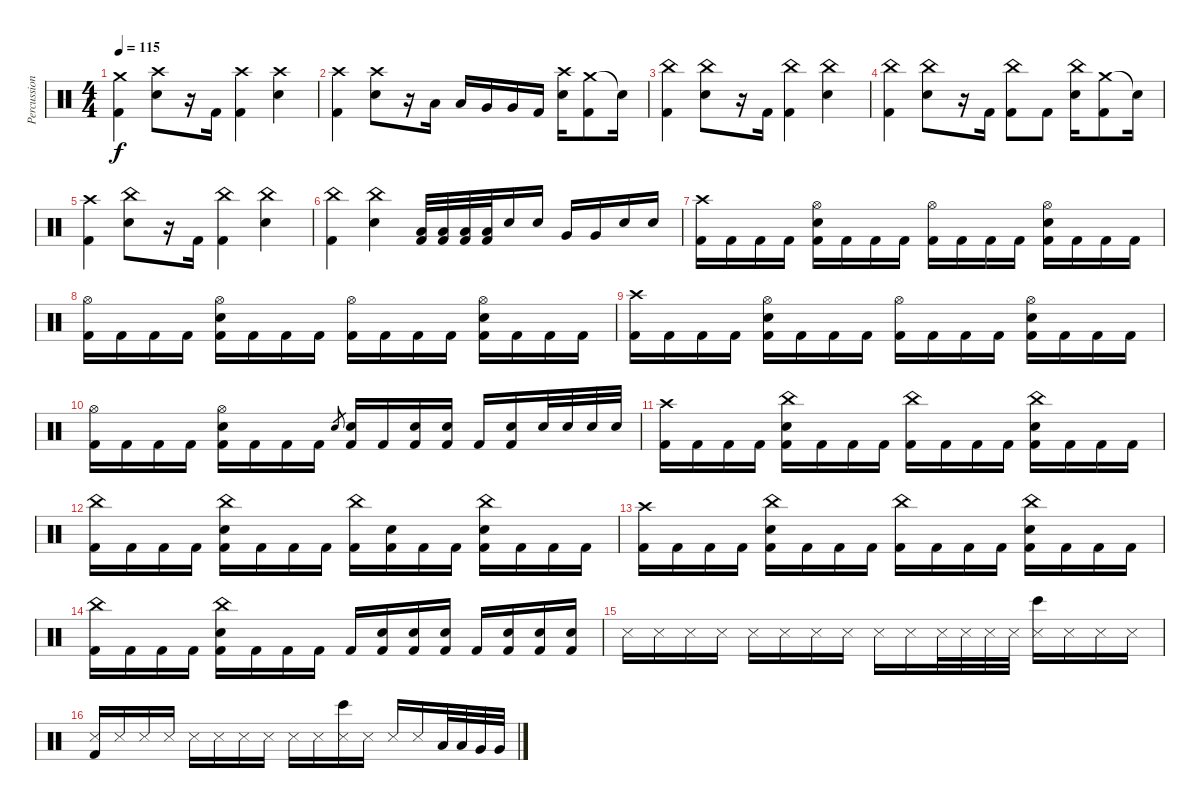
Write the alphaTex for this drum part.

\track ("Percussions" "Percussion") {instrument percussion}
\staff {score}
\articulation defaults
\ts (4 4)
\tempo 115
\clef neutral
\ks c
("Crash medium (hit)" "Kick (hit) 2").4{dy f} ("Crash high (hit)" "Electric Snare (hit)").8 r.16 "Kick (hit) 2".16 ("Crash high (hit)" "Kick (hit) 2").4 ("Crash high (hit)" "Electric Snare (hit)").4 |
("Crash high (hit)" "Kick (hit) 2").4 ("Crash high (hit)" "Electric Snare (hit)").8 r.16 "Low Tom (hit)".16 "Low Tom (hit)".16 "Very Low Tom (hit)".16 "Very Low Tom (hit)".16 "Kick (hit) 2".16 ("Crash high (hit)" "Electric Snare (hit)").16 ("Crash medium (hit)" "Kick (hit) 2").8 "Snare (hit)"{t}.16 |
("China (hit)" "Kick (hit) 2").4 ("China (hit)" "Electric Snare (hit)").8 r.16 "Kick (hit) 2".16 ("China (hit)" "Kick (hit) 2").4 ("China (hit)" "Electric Snare (hit)").4 |
("China (hit)" "Kick (hit) 2").4 ("China (hit)" "Electric Snare (hit)").8 r.16 "Kick (hit) 2".16 ("China (hit)" "Kick (hit) 2").8 "Kick (hit) 2".8 ("China (hit)" "Electric Snare (hit)").16 ("Crash medium (hit)" "Kick (hit) 2").8 "Snare (hit)"{t}.16 |
("Crash high (hit)" "Kick (hit) 2").4 ("China (hit)" "Electric Snare (hit)").8 r.16 "Kick (hit) 2".16 ("China (hit)" "Kick (hit) 2").4 ("China (hit)" "Electric Snare (hit)").4 |
("China (hit)" "Kick (hit) 2").4 ("China (hit)" "Electric Snare (hit)").4 ("Low Tom (hit)" "Kick (hit) 2").32 ("Low Tom (hit)" "Kick (hit) 2").32 ("Low Tom (hit)" "Kick (hit) 2").32 ("Low Tom (hit)" "Kick (hit) 2").32 "Electric Snare (hit)".16 "Electric Snare (hit)".16 "Very Low Tom (hit)".16 "Very Low Tom (hit)".16 "Electric Snare (hit)".16 "Electric Snare (hit)".16 |
("Crash high (hit)" "Kick (hit) 2").16 "Kick (hit) 2".16 "Kick (hit) 2".16 "Kick (hit) 2".16 ("Hi-Hat (open)" "Electric Snare (hit)" "Kick (hit) 2").16 "Kick (hit) 2".16 "Kick (hit) 2".16 "Kick (hit) 2".16 ("Hi-Hat (open)" "Kick (hit) 2").16 "Kick (hit) 2".16 "Kick (hit) 2".16 "Kick (hit) 2".16 ("Hi-Hat (open)" "Electric Snare (hit)" "Kick (hit) 2").16 "Kick (hit) 2".16 "Kick (hit) 2".16 "Kick (hit) 2".16 |
("Hi-Hat (open)" "Kick (hit) 2").16 "Kick (hit) 2".16 "Kick (hit) 2".16 "Kick (hit) 2".16 ("Hi-Hat (open)" "Electric Snare (hit)" "Kick (hit) 2").16 "Kick (hit) 2".16 "Kick (hit) 2".16 "Kick (hit) 2".16 ("Hi-Hat (open)" "Kick (hit) 2").16 "Kick (hit) 2".16 "Kick (hit) 2".16 "Kick (hit) 2".16 ("Hi-Hat (open)" "Electric Snare (hit)" "Kick (hit) 2").16 "Kick (hit) 2".16 "Kick (hit) 2".16 "Kick (hit) 2".16 |
("Crash high (hit)" "Kick (hit) 2").16 "Kick (hit) 2".16 "Kick (hit) 2".16 "Kick (hit) 2".16 ("Hi-Hat (open)" "Electric Snare (hit)" "Kick (hit) 2").16 "Kick (hit) 2".16 "Kick (hit) 2".16 "Kick (hit) 2".16 ("Hi-Hat (open)" "Kick (hit) 2").16 "Kick (hit) 2".16 "Kick (hit) 2".16 "Kick (hit) 2".16 ("Hi-Hat (open)" "Electric Snare (hit)" "Kick (hit) 2").16 "Kick (hit) 2".16 "Kick (hit) 2".16 "Kick (hit) 2".16 |
("Hi-Hat (open)" "Kick (hit) 2").16 "Kick (hit) 2".16 "Kick (hit) 2".16 "Kick (hit) 2".16 ("Hi-Hat (open)" "Electric Snare (hit)" "Kick (hit) 2").16 "Kick (hit) 2".16 "Kick (hit) 2".16 "Kick (hit) 2".16 "Electric Snare (hit)".8{gr} ("Electric Snare (hit)" "Kick (hit) 2").16 "Kick (hit) 2".16 ("Electric Snare (hit)" "Kick (hit) 2").16 ("Electric Snare (hit)" "Kick (hit) 2").16 "Kick (hit) 2".16 ("Electric Snare (hit)" "Kick (hit) 2").16 "Electric Snare (hit)".32 "Electric Snare (hit)".32 "Electric Snare (hit)".32 "Electric Snare (hit)".32 |
("Crash high (hit)" "Kick (hit) 2").16 "Kick (hit) 2".16 "Kick (hit) 2".16 "Kick (hit) 2".16 ("China (hit)" "Electric Snare (hit)" "Kick (hit) 2").16 "Kick (hit) 2".16 "Kick (hit) 2".16 "Kick (hit) 2".16 ("China (hit)" "Kick (hit) 2").16 "Kick (hit) 2".16 "Kick (hit) 2".16 "Kick (hit) 2".16 ("China (hit)" "Electric Snare (hit)" "Kick (hit) 2").16 "Kick (hit) 2".16 "Kick (hit) 2".16 "Kick (hit) 2".16 |
("China (hit)" "Kick (hit) 2").16 "Kick (hit) 2".16 "Kick (hit) 2".16 "Kick (hit) 2".16 ("China (hit)" "Electric Snare (hit)" "Kick (hit) 2").16 "Kick (hit) 2".16 "Kick (hit) 2".16 "Kick (hit) 2".16 ("China (hit)" "Kick (hit) 2").16 ("Electric Snare (hit)" "Kick (hit) 2").16 "Kick (hit) 2".16 "Kick (hit) 2".16 ("China (hit)" "Electric Snare (hit)" "Kick (hit) 2").16 "Kick (hit) 2".16 "Kick (hit) 2".16 "Kick (hit) 2".16 |
("Crash high (hit)" "Kick (hit) 2").16 "Kick (hit) 2".16 "Kick (hit) 2".16 "Kick (hit) 2".16 ("China (hit)" "Electric Snare (hit)" "Kick (hit) 2").16 "Kick (hit) 2".16 "Kick (hit) 2".16 "Kick (hit) 2".16 ("China (hit)" "Kick (hit) 2").16 "Kick (hit) 2".16 "Kick (hit) 2".16 "Kick (hit) 2".16 ("China (hit)" "Electric Snare (hit)" "Kick (hit) 2").16 "Kick (hit) 2".16 "Kick (hit) 2".16 "Kick (hit) 2".16 |
("China (hit)" "Kick (hit) 2").16 "Kick (hit) 2".16 "Kick (hit) 2".16 "Kick (hit) 2".16 ("China (hit)" "Electric Snare (hit)" "Kick (hit) 2").16 "Kick (hit) 2".16 "Kick (hit) 2".16 "Kick (hit) 2".16 "Kick (hit) 2".16 ("Electric Snare (hit)" "Kick (hit) 2").16 ("Electric Snare (hit)" "Kick (hit) 2").16 ("Electric Snare (hit)" "Kick (hit) 2").16 "Kick (hit) 2".16 ("Electric Snare (hit)" "Kick (hit) 2").16 ("Electric Snare (hit)" "Kick (hit) 2").16 ("Electric Snare (hit)" "Kick (hit) 2").16 |
"Snare (side stick) 3".16 "Snare (side stick) 3".16 "Snare (side stick) 3".16 "Snare (side stick) 3".16 "Snare (side stick) 3".16 "Snare (side stick) 3".16 "Snare (side stick) 3".16 "Snare (side stick) 3".16 "Snare (side stick) 3".16 "Snare (side stick) 3".16 "Snare (side stick) 3".32 "Snare (side stick) 3".32 "Snare (side stick) 3".32 "Snare (side stick) 3".32 ("Snare (side stick) 3" "Bongo High (hit)").16 "Snare (side stick) 3".16 "Snare (side stick) 3".16 "Snare (side stick) 3".16 |
("Snare (side stick) 3" "Kick (hit) 2").16 "Snare (side stick) 3".16 "Snare (side stick) 3".16 "Snare (side stick) 3".16 "Snare (side stick) 3".16 "Snare (side stick) 3".16 "Snare (side stick) 3".16 "Snare (side stick) 3".16 "Snare (side stick) 3".16 "Snare (side stick) 3".16 ("Snare (side stick) 3" "Bongo High (hit)").16 "Snare (side stick) 3".16 "Snare (side stick) 3".16 "Snare (side stick) 3".16 "Low Tom (hit)".32 "Low Tom (hit)".32 "Very Low Tom (hit)".32 "Very Low Tom (hit)".32
